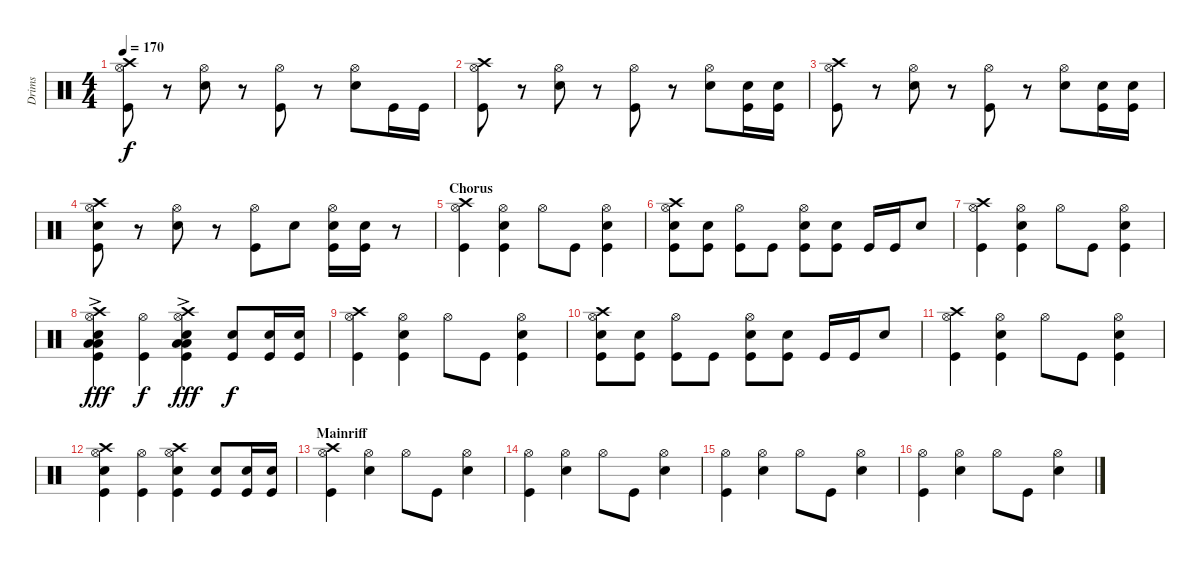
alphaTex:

\track ("Drims" "Drims") {instrument percussion}
\staff {score}
\articulation defaults
\ts (4 4)
\tempo 170
\clef neutral
\ks c
("Hi-Hat (open)" "Crash high (hit)" "Kick (hit)").8{dy f} r.8 ("Hi-Hat (open)" "Electric Snare (hit)").8 r.8 ("Hi-Hat (open)" "Kick (hit)").8 r.8 ("Hi-Hat (open)" "Electric Snare (hit)").8 "Kick (hit)".16 "Kick (hit)".16 |
("Hi-Hat (open)" "Crash high (hit)" "Kick (hit)").8 r.8 ("Hi-Hat (open)" "Electric Snare (hit)").8 r.8 ("Hi-Hat (open)" "Kick (hit)").8 r.8 ("Hi-Hat (open)" "Electric Snare (hit)").8 ("Electric Snare (hit)" "Kick (hit)").16 ("Electric Snare (hit)" "Kick (hit)").16 |
("Hi-Hat (open)" "Crash high (hit)" "Kick (hit)").8 r.8 ("Hi-Hat (open)" "Electric Snare (hit)").8 r.8 ("Hi-Hat (open)" "Kick (hit)").8 r.8 ("Hi-Hat (open)" "Electric Snare (hit)").8 ("Electric Snare (hit)" "Kick (hit)").16 ("Electric Snare (hit)" "Kick (hit)").16 |
("Hi-Hat (open)" "Crash high (hit)" "Electric Snare (hit)" "Kick (hit)").8 r.8 ("Hi-Hat (open)" "Electric Snare (hit)").8 r.8 ("Hi-Hat (open)" "Kick (hit)").8 "Electric Snare (hit)".8 ("Hi-Hat (open)" "Electric Snare (hit)" "Kick (hit)").16 ("Electric Snare (hit)" "Kick (hit)").16 r.8 |
\section ("" "Chorus")
("Hi-Hat (open)" "Crash high (hit)" "Kick (hit)").4 ("Hi-Hat (open)" "Electric Snare (hit)" "Kick (hit)").4 "Hi-Hat (open)".8 "Kick (hit)".8 ("Hi-Hat (open)" "Electric Snare (hit)" "Kick (hit)").4 |
("Hi-Hat (open)" "Crash high (hit)" "Electric Snare (hit)" "Kick (hit)").8 ("Electric Snare (hit)" "Kick (hit)").8 ("Hi-Hat (open)" "Kick (hit)").8 "Kick (hit)".8 ("Hi-Hat (open)" "Electric Snare (hit)" "Kick (hit)").8 ("Electric Snare (hit)" "Kick (hit)").8 "Kick (hit)".16 "Kick (hit)".16 "Electric Snare (hit)".8 |
("Hi-Hat (open)" "Crash high (hit)" "Kick (hit)").4 ("Hi-Hat (open)" "Electric Snare (hit)" "Kick (hit)").4 "Hi-Hat (open)".8 "Kick (hit)".8 ("Hi-Hat (open)" "Electric Snare (hit)" "Kick (hit)").4 |
("Hi-Hat (open)" "Crash high (hit)" "Electric Snare (hit)" "Low Tom (hit)" "Low Floor Tom (hit)"{ac} "Kick (hit)").4{dy fff} ("Hi-Hat (open)" "Kick (hit)").4{dy f} ("Hi-Hat (open)" "Crash high (hit)" "Electric Snare (hit)" "Low Tom (hit)"{ac} "Low Floor Tom (hit)"{ac} "Kick (hit)").4{dy fff} ("Electric Snare (hit)" "Kick (hit)").8{dy f} ("Electric Snare (hit)" "Kick (hit)").16 ("Electric Snare (hit)" "Kick (hit)").16 |
("Hi-Hat (open)" "Crash high (hit)" "Kick (hit)").4 ("Hi-Hat (open)" "Electric Snare (hit)" "Kick (hit)").4 "Hi-Hat (open)".8 "Kick (hit)".8 ("Hi-Hat (open)" "Electric Snare (hit)" "Kick (hit)").4 |
("Hi-Hat (open)" "Crash high (hit)" "Electric Snare (hit)" "Kick (hit)").8 ("Electric Snare (hit)" "Kick (hit)").8 ("Hi-Hat (open)" "Kick (hit)").8 "Kick (hit)".8 ("Hi-Hat (open)" "Electric Snare (hit)" "Kick (hit)").8 ("Electric Snare (hit)" "Kick (hit)").8 "Kick (hit)".16 "Kick (hit)".16 "Electric Snare (hit)".8 |
("Hi-Hat (open)" "Crash high (hit)" "Kick (hit)").4 ("Hi-Hat (open)" "Electric Snare (hit)" "Kick (hit)").4 "Hi-Hat (open)".8 "Kick (hit)".8 ("Hi-Hat (open)" "Electric Snare (hit)" "Kick (hit)").4 |
("Hi-Hat (open)" "Crash high (hit)" "Electric Snare (hit)" "Kick (hit)").4 ("Hi-Hat (open)" "Kick (hit)").4 ("Hi-Hat (open)" "Crash high (hit)" "Electric Snare (hit)" "Kick (hit)").4 ("Electric Snare (hit)" "Kick (hit)").8 ("Electric Snare (hit)" "Kick (hit)").16 ("Electric Snare (hit)" "Kick (hit)").16 |
\section ("" "Mainriff")
("Hi-Hat (open)" "Crash high (hit)" "Kick (hit)").4 ("Hi-Hat (open)" "Electric Snare (hit)").4 "Hi-Hat (open)".8 "Kick (hit)".8 ("Hi-Hat (open)" "Electric Snare (hit)").4 |
("Hi-Hat (open)" "Kick (hit)").4 ("Hi-Hat (open)" "Electric Snare (hit)").4 "Hi-Hat (open)".8 "Kick (hit)".8 ("Hi-Hat (open)" "Electric Snare (hit)").4 |
("Hi-Hat (open)" "Kick (hit)").4 ("Hi-Hat (open)" "Electric Snare (hit)").4 "Hi-Hat (open)".8 "Kick (hit)".8 ("Hi-Hat (open)" "Electric Snare (hit)").4 |
("Hi-Hat (open)" "Kick (hit)").4 ("Hi-Hat (open)" "Electric Snare (hit)").4 "Hi-Hat (open)".8 "Kick (hit)".8 ("Hi-Hat (open)" "Electric Snare (hit)").4
